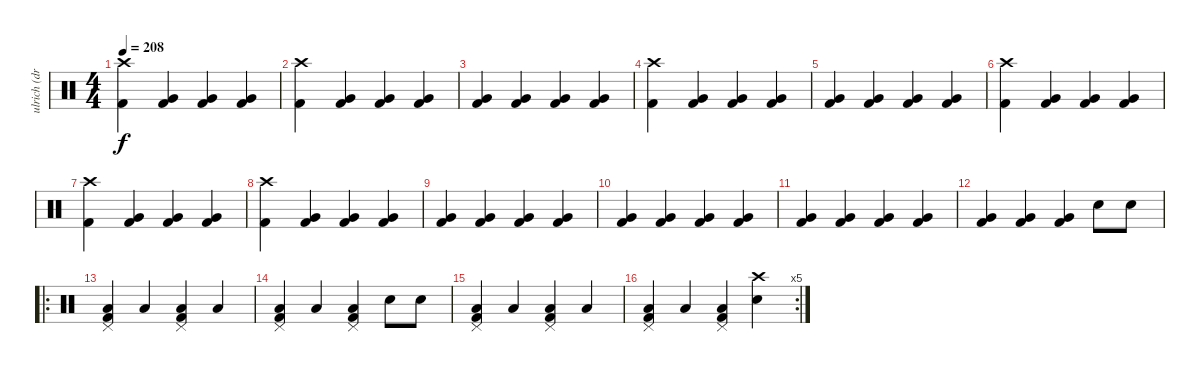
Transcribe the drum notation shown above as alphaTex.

\track ("ulrich (drums)" "ulrich (dr") {instrument percussion}
\staff {score}
\articulation defaults
\ts (4 4)
\tempo 208
\clef neutral
\ks c
("Crash high (hit)" "Kick (hit) 2").4{dy f} ("Very Low Tom (hit)" "Kick (hit) 2").4 ("Very Low Tom (hit)" "Kick (hit) 2").4 ("Very Low Tom (hit)" "Kick (hit) 2").4 |
("Crash high (hit)" "Kick (hit) 2").4 ("Very Low Tom (hit)" "Kick (hit) 2").4 ("Very Low Tom (hit)" "Kick (hit) 2").4 ("Very Low Tom (hit)" "Kick (hit) 2").4 |
("Very Low Tom (hit)" "Kick (hit) 2").4 ("Very Low Tom (hit)" "Kick (hit) 2").4 ("Very Low Tom (hit)" "Kick (hit) 2").4 ("Very Low Tom (hit)" "Kick (hit) 2").4 |
("Crash high (hit)" "Kick (hit) 2").4 ("Very Low Tom (hit)" "Kick (hit) 2").4 ("Very Low Tom (hit)" "Kick (hit) 2").4 ("Very Low Tom (hit)" "Kick (hit) 2").4 |
("Very Low Tom (hit)" "Kick (hit) 2").4 ("Very Low Tom (hit)" "Kick (hit) 2").4 ("Very Low Tom (hit)" "Kick (hit) 2").4 ("Very Low Tom (hit)" "Kick (hit) 2").4 |
("Crash high (hit)" "Kick (hit) 2").4 ("Very Low Tom (hit)" "Kick (hit) 2").4 ("Very Low Tom (hit)" "Kick (hit) 2").4 ("Very Low Tom (hit)" "Kick (hit) 2").4 |
("Crash high (hit)" "Kick (hit) 2").4 ("Very Low Tom (hit)" "Kick (hit) 2").4 ("Very Low Tom (hit)" "Kick (hit) 2").4 ("Very Low Tom (hit)" "Kick (hit) 2").4 |
("Crash high (hit)" "Kick (hit) 2").4 ("Very Low Tom (hit)" "Kick (hit) 2").4 ("Very Low Tom (hit)" "Kick (hit) 2").4 ("Very Low Tom (hit)" "Kick (hit) 2").4 |
("Very Low Tom (hit)" "Kick (hit) 2").4 ("Very Low Tom (hit)" "Kick (hit) 2").4 ("Very Low Tom (hit)" "Kick (hit) 2").4 ("Very Low Tom (hit)" "Kick (hit) 2").4 |
("Very Low Tom (hit)" "Kick (hit) 2").4 ("Very Low Tom (hit)" "Kick (hit) 2").4 ("Very Low Tom (hit)" "Kick (hit) 2").4 ("Very Low Tom (hit)" "Kick (hit) 2").4 |
("Very Low Tom (hit)" "Kick (hit) 2").4 ("Very Low Tom (hit)" "Kick (hit) 2").4 ("Very Low Tom (hit)" "Kick (hit) 2").4 ("Very Low Tom (hit)" "Kick (hit) 2").4 |
("Very Low Tom (hit)" "Kick (hit) 2").4 ("Very Low Tom (hit)" "Kick (hit) 2").4 ("Very Low Tom (hit)" "Kick (hit) 2").4 "Snare (hit) 2".8 "Snare (hit) 2".8 |
\ro
("Pedal Hi-Hat (hit)" "Low Tom (hit)" "Kick (hit) 2").4 "Low Tom (hit)".4 ("Pedal Hi-Hat (hit)" "Low Tom (hit)" "Kick (hit) 2").4 "Low Tom (hit)".4 |
("Pedal Hi-Hat (hit)" "Low Tom (hit)" "Kick (hit) 2").4 "Low Tom (hit)".4 ("Pedal Hi-Hat (hit)" "Low Tom (hit)" "Kick (hit) 2").4 "Snare (hit) 2".8 "Snare (hit) 2".8 |
("Pedal Hi-Hat (hit)" "Low Tom (hit)" "Kick (hit) 2").4 "Low Tom (hit)".4 ("Pedal Hi-Hat (hit)" "Low Tom (hit)" "Kick (hit) 2").4 "Low Tom (hit)".4 |
\rc 5
("Pedal Hi-Hat (hit)" "Low Tom (hit)" "Kick (hit) 2").4 "Low Tom (hit)".4 ("Pedal Hi-Hat (hit)" "Low Tom (hit)" "Kick (hit) 2").4 ("Crash high (hit)" "Snare (hit) 2").4
